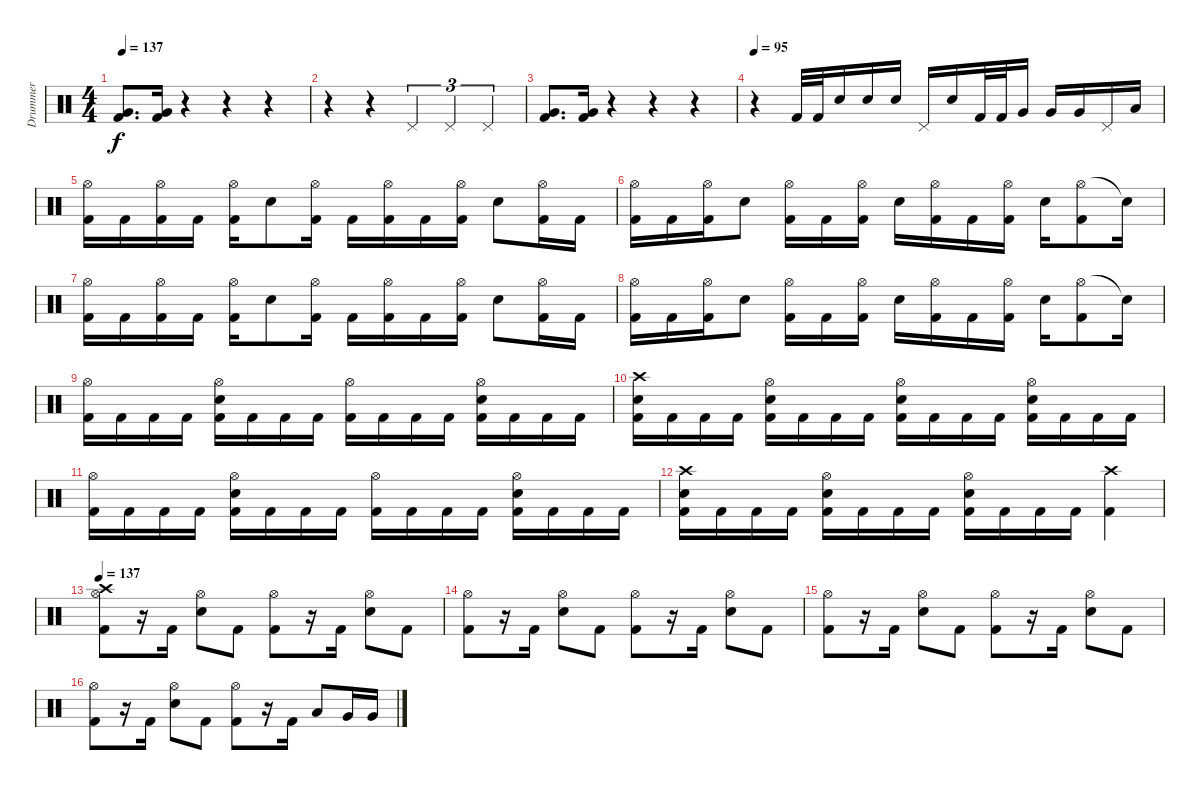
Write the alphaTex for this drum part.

\track ("Drummer" "Drummer") {instrument percussion}
\staff {score}
\articulation defaults
\ts (4 4)
\tempo 137
\clef neutral
\ks c
("Kick (hit) 2" "Very Low Tom (hit)").8{d dy f} ("Kick (hit) 2" "Very Low Tom (hit)").16 r.4 r.4 r.4 |
r.4 r.4 "Pedal Hi-Hat (hit)".4{tu (3 2)} "Pedal Hi-Hat (hit)".4{tu (3 2)} "Pedal Hi-Hat (hit)".4{tu (3 2)} |
("Kick (hit) 2" "Very Low Tom (hit)").8{d} ("Kick (hit) 2" "Very Low Tom (hit)").16 r.4 r.4 r.4 |
\tempo 95
r.4 "Kick (hit) 2".32 "Kick (hit) 2".32 "Electric Snare (hit)".16 "Electric Snare (hit)".16 "Electric Snare (hit)".16 "Pedal Hi-Hat (hit)".16 "Electric Snare (hit)".16 "Kick (hit) 2".32 "Kick (hit) 2".32 "Very Low Tom (hit)".16 "Very Low Tom (hit)".16 "Very Low Tom (hit)".16 "Pedal Hi-Hat (hit)".16 "Low Floor Tom (hit)".16 |
("Hi-Hat (open)" "Kick (hit) 2").16 "Kick (hit) 2".16 ("Hi-Hat (open)" "Kick (hit) 2").16 "Kick (hit) 2".16 ("Hi-Hat (open)" "Kick (hit) 2").16 "Electric Snare (hit)".8 ("Hi-Hat (open)" "Kick (hit) 2").16 "Kick (hit) 2".16 ("Hi-Hat (open)" "Kick (hit) 2").16 "Kick (hit) 2".16 ("Hi-Hat (open)" "Kick (hit) 2").16 "Electric Snare (hit)".8 ("Hi-Hat (open)" "Kick (hit) 2").16 "Kick (hit) 2".16 |
("Hi-Hat (open)" "Kick (hit) 2").16 "Kick (hit) 2".16 ("Hi-Hat (open)" "Kick (hit) 2").16 "Electric Snare (hit)".8 ("Hi-Hat (open)" "Kick (hit) 2").16 "Kick (hit) 2".16 ("Hi-Hat (open)" "Kick (hit) 2").16 "Electric Snare (hit)".16 ("Hi-Hat (open)" "Kick (hit) 2").16 "Kick (hit) 2".16 ("Hi-Hat (open)" "Kick (hit) 2").16 "Electric Snare (hit)".16 ("Hi-Hat (open)" "Kick (hit) 2").8 "Snare (hit)"{t}.16 |
("Hi-Hat (open)" "Kick (hit) 2").16 "Kick (hit) 2".16 ("Hi-Hat (open)" "Kick (hit) 2").16 "Kick (hit) 2".16 ("Hi-Hat (open)" "Kick (hit) 2").16 "Electric Snare (hit)".8 ("Hi-Hat (open)" "Kick (hit) 2").16 "Kick (hit) 2".16 ("Hi-Hat (open)" "Kick (hit) 2").16 "Kick (hit) 2".16 ("Hi-Hat (open)" "Kick (hit) 2").16 "Electric Snare (hit)".8 ("Hi-Hat (open)" "Kick (hit) 2").16 "Kick (hit) 2".16 |
("Hi-Hat (open)" "Kick (hit) 2").16 "Kick (hit) 2".16 ("Hi-Hat (open)" "Kick (hit) 2").16 "Electric Snare (hit)".8 ("Hi-Hat (open)" "Kick (hit) 2").16 "Kick (hit) 2".16 ("Hi-Hat (open)" "Kick (hit) 2").16 "Electric Snare (hit)".16 ("Hi-Hat (open)" "Kick (hit) 2").16 "Kick (hit) 2".16 ("Hi-Hat (open)" "Kick (hit) 2").16 "Electric Snare (hit)".16 ("Hi-Hat (open)" "Kick (hit) 2").8 "Snare (hit)"{t}.16 |
("Hi-Hat (open)" "Kick (hit) 2").16 "Kick (hit) 2".16 "Kick (hit) 2".16 "Kick (hit) 2".16 ("Electric Snare (hit)" "Hi-Hat (open)" "Kick (hit) 2").16 "Kick (hit) 2".16 "Kick (hit) 2".16 "Kick (hit) 2".16 ("Hi-Hat (open)" "Kick (hit) 2").16 "Kick (hit) 2".16 "Kick (hit) 2".16 "Kick (hit) 2".16 ("Electric Snare (hit)" "Hi-Hat (open)" "Kick (hit) 2").16 "Kick (hit) 2".16 "Kick (hit) 2".16 "Kick (hit) 2".16 |
("Crash high (hit)" "Electric Snare (hit)" "Kick (hit) 2").16 "Kick (hit) 2".16 "Kick (hit) 2".16 "Kick (hit) 2".16 ("Electric Snare (hit)" "Hi-Hat (open)" "Kick (hit) 2").16 "Kick (hit) 2".16 "Kick (hit) 2".16 "Kick (hit) 2".16 ("Electric Snare (hit)" "Hi-Hat (open)" "Kick (hit) 2").16 "Kick (hit) 2".16 "Kick (hit) 2".16 "Kick (hit) 2".16 ("Electric Snare (hit)" "Hi-Hat (open)" "Kick (hit) 2").16 "Kick (hit) 2".16 "Kick (hit) 2".16 "Kick (hit) 2".16 |
("Hi-Hat (open)" "Kick (hit) 2").16 "Kick (hit) 2".16 "Kick (hit) 2".16 "Kick (hit) 2".16 ("Electric Snare (hit)" "Hi-Hat (open)" "Kick (hit) 2").16 "Kick (hit) 2".16 "Kick (hit) 2".16 "Kick (hit) 2".16 ("Hi-Hat (open)" "Kick (hit) 2").16 "Kick (hit) 2".16 "Kick (hit) 2".16 "Kick (hit) 2".16 ("Electric Snare (hit)" "Hi-Hat (open)" "Kick (hit) 2").16 "Kick (hit) 2".16 "Kick (hit) 2".16 "Kick (hit) 2".16 |
("Crash high (hit)" "Electric Snare (hit)" "Kick (hit) 2").16 "Kick (hit) 2".16 "Kick (hit) 2".16 "Kick (hit) 2".16 ("Electric Snare (hit)" "Hi-Hat (open)" "Kick (hit) 2").16 "Kick (hit) 2".16 "Kick (hit) 2".16 "Kick (hit) 2".16 ("Electric Snare (hit)" "Hi-Hat (open)" "Kick (hit) 2").16 "Kick (hit) 2".16 "Kick (hit) 2".16 "Kick (hit) 2".16 ("Crash high (hit)" "Kick (hit) 2").4 |
\tempo 137
("Hi-Hat (open)" "Kick (hit) 2" "Crash high (hit)").8 r.16 "Kick (hit) 2".16 ("Hi-Hat (open)" "Electric Snare (hit)").8 "Kick (hit) 2".8 ("Hi-Hat (open)" "Kick (hit) 2").8 r.16 "Kick (hit) 2".16 ("Hi-Hat (open)" "Electric Snare (hit)").8 "Kick (hit) 2".8 |
("Hi-Hat (open)" "Kick (hit) 2").8 r.16 "Kick (hit) 2".16 ("Hi-Hat (open)" "Electric Snare (hit)").8 "Kick (hit) 2".8 ("Hi-Hat (open)" "Kick (hit) 2").8 r.16 "Kick (hit) 2".16 ("Hi-Hat (open)" "Electric Snare (hit)").8 "Kick (hit) 2".8 |
("Hi-Hat (open)" "Kick (hit) 2").8 r.16 "Kick (hit) 2".16 ("Hi-Hat (open)" "Electric Snare (hit)").8 "Kick (hit) 2".8 ("Hi-Hat (open)" "Kick (hit) 2").8 r.16 "Kick (hit) 2".16 ("Hi-Hat (open)" "Electric Snare (hit)").8 "Kick (hit) 2".8 |
("Hi-Hat (open)" "Kick (hit) 2").8 r.16 "Kick (hit) 2".16 ("Hi-Hat (open)" "Electric Snare (hit)").8 "Kick (hit) 2".8 ("Hi-Hat (open)" "Kick (hit) 2").8 r.16 "Kick (hit) 2".16 "Low Tom (hit)".8 "Very Low Tom (hit)".16 "Very Low Tom (hit)".16
